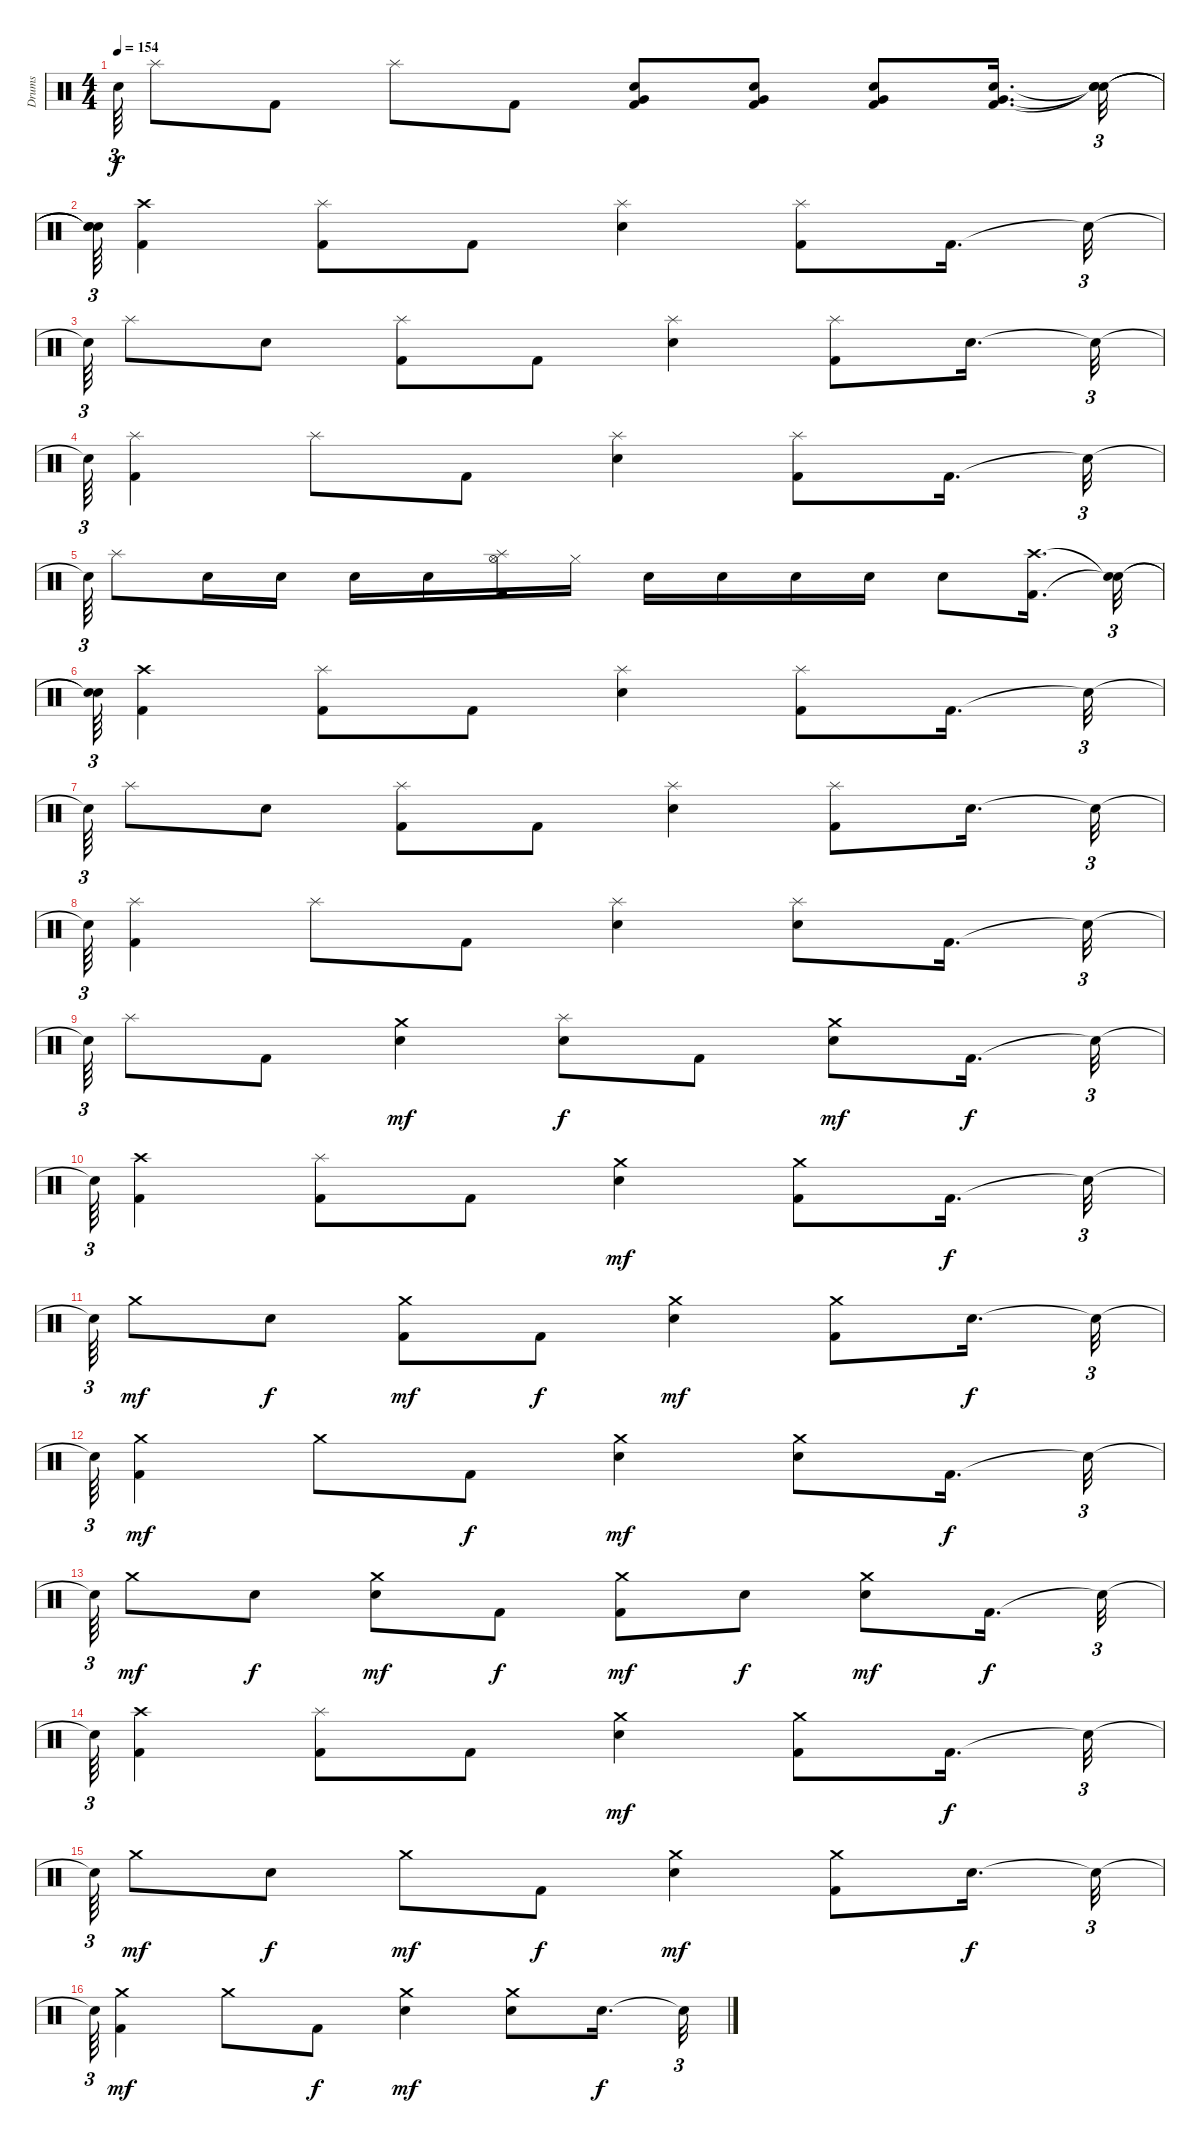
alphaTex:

\track ("Drums" "Drums") {instrument percussion}
\staff {score}
\articulation defaults
\ts (4 4)
\tempo 154
\clef neutral
\ks c "Snare (hit)"{t}.64{tu (3 2) dy f} "Splash (hit)".8 "Kick (hit) 2".8 "Splash (hit)".8 "Kick (hit) 2".8
("Electric Snare (hit)" "Kick (hit) 2" "Very Low Tom (hit)").8 ("Electric Snare (hit)" "Kick (hit) 2" "Very Low Tom (hit)").8 ("Electric Snare (hit)" "Kick (hit) 2" "Very Low Tom (hit)").8 ("Electric Snare (hit)" "Kick (hit) 2" "Very Low Tom (hit)").16{d} ("Snare (hit)"{t} "Snare (hit)"{t} "Snare (hit)"{t}).32{tu (3 2)} |
("Snare (hit)"{t} "Snare (hit)"{t} "Snare (hit)"{t}).64{tu (3 2)} ("Kick (hit) 2" "Crash high (hit)").4 ("Kick (hit) 2" "Splash (hit)").8 "Kick (hit) 2".8 ("Electric Snare (hit)" "Splash (hit)").4 ("Kick (hit) 2" "Splash (hit)").8 "Kick (hit) 2".16{d} "Snare (hit)"{t}.32{tu (3 2)} |
"Snare (hit)"{t}.64{tu (3 2)} "Splash (hit)".8 "Electric Snare (hit)".8 ("Kick (hit) 2" "Splash (hit)").8 "Kick (hit) 2".8 ("Electric Snare (hit)" "Splash (hit)").4 ("Kick (hit) 2" "Splash (hit)").8 "Electric Snare (hit)".16{d} "Snare (hit)"{t}.32{tu (3 2)} |
"Snare (hit)"{t}.64{tu (3 2)} ("Kick (hit) 2" "Splash (hit)").4 "Splash (hit)".8 "Kick (hit) 2".8 ("Electric Snare (hit)" "Splash (hit)").4 ("Kick (hit) 2" "Splash (hit)").8 "Kick (hit) 2".16{d} "Snare (hit)"{t}.32{tu (3 2)} |
"Snare (hit)"{t}.64{tu (3 2)} "Splash (hit)".8 "Electric Snare (hit)".16 "Electric Snare (hit)".16 "Electric Snare (hit)".16 "Electric Snare (hit)".16 ("Kick (hit) 2" "Hi-Hat (open)" "Splash (hit)").16 "Hi-Hat (closed)".16 "Electric Snare (hit)".16 "Electric Snare (hit)".16 "Electric Snare (hit)".16 "Electric Snare (hit)".16 "Electric Snare (hit)".8 ("Kick (hit) 2" "Crash high (hit)").16{d} ("Snare (hit)"{t} "Snare (hit)"{t}).32{tu (3 2)} |
("Snare (hit)"{t} "Snare (hit)"{t}).64{tu (3 2)} ("Crash high (hit)" "Kick (hit) 2").4 ("Kick (hit) 2" "Splash (hit)").8 "Kick (hit) 2".8 ("Electric Snare (hit)" "Splash (hit)").4 ("Kick (hit) 2" "Splash (hit)").8 "Kick (hit) 2".16{d} "Snare (hit)"{t}.32{tu (3 2)} |
"Snare (hit)"{t}.64{tu (3 2)} "Splash (hit)".8 "Electric Snare (hit)".8 ("Kick (hit) 2" "Splash (hit)").8 "Kick (hit) 2".8 ("Electric Snare (hit)" "Splash (hit)").4 ("Kick (hit) 2" "Splash (hit)").8 "Electric Snare (hit)".16{d} "Snare (hit)"{t}.32{tu (3 2)} |
"Snare (hit)"{t}.64{tu (3 2)} ("Kick (hit) 2" "Splash (hit)").4 "Splash (hit)".8 "Kick (hit) 2".8 ("Electric Snare (hit)" "Splash (hit)").4 ("Electric Snare (hit)" "Splash (hit)").8 "Kick (hit) 2".16{d} "Snare (hit)"{t}.32{tu (3 2)} |
"Snare (hit)"{t}.64{tu (3 2)} "Splash (hit)".8 "Kick (hit) 2".8 ("Electric Snare (hit)" "Crash medium (hit)").4{dy mf} ("Electric Snare (hit)" "Splash (hit)").8{dy f} "Kick (hit) 2".8 ("Electric Snare (hit)" "Crash medium (hit)").8{dy mf} "Kick (hit) 2".16{d dy f} "Snare (hit)"{t}.32{tu (3 2)} |
"Snare (hit)"{t}.64{tu (3 2)} ("Kick (hit) 2" "Crash high (hit)").4 ("Kick (hit) 2" "Splash (hit)").8 "Kick (hit) 2".8 ("Electric Snare (hit)" "Crash medium (hit)").4{dy mf} ("Kick (hit) 2" "Crash medium (hit)").8 "Kick (hit) 2".16{d dy f} "Snare (hit)"{t}.32{tu (3 2)} |
"Snare (hit)"{t}.64{tu (3 2)} "Crash medium (hit)".8{dy mf} "Electric Snare (hit)".8{dy f} ("Kick (hit) 2" "Crash medium (hit)").8{dy mf} "Kick (hit) 2".8{dy f} ("Electric Snare (hit)" "Crash medium (hit)").4{dy mf} ("Kick (hit) 2" "Crash medium (hit)").8 "Electric Snare (hit)".16{d dy f} "Snare (hit)"{t}.32{tu (3 2)} |
"Snare (hit)"{t}.64{tu (3 2)} ("Kick (hit) 2" "Crash medium (hit)").4{dy mf} "Crash medium (hit)".8 "Kick (hit) 2".8{dy f} ("Electric Snare (hit)" "Crash medium (hit)").4{dy mf} ("Electric Snare (hit)" "Crash medium (hit)").8 "Kick (hit) 2".16{d dy f} "Snare (hit)"{t}.32{tu (3 2)} |
"Snare (hit)"{t}.64{tu (3 2)} "Crash medium (hit)".8{dy mf} "Electric Snare (hit)".8{dy f} ("Electric Snare (hit)" "Crash medium (hit)").8{dy mf} "Kick (hit) 2".8{dy f} ("Kick (hit) 2" "Crash medium (hit)").8{dy mf} "Electric Snare (hit)".8{dy f} ("Electric Snare (hit)" "Crash medium (hit)").8{dy mf} "Kick (hit) 2".16{d dy f} "Snare (hit)"{t}.32{tu (3 2)} |
"Snare (hit)"{t}.64{tu (3 2)} ("Crash high (hit)" "Kick (hit) 2").4 ("Kick (hit) 2" "Splash (hit)").8 "Kick (hit) 2".8 ("Electric Snare (hit)" "Crash medium (hit)").4{dy mf} ("Kick (hit) 2" "Crash medium (hit)").8 "Kick (hit) 2".16{d dy f} "Snare (hit)"{t}.32{tu (3 2)} |
"Snare (hit)"{t}.64{tu (3 2)} "Crash medium (hit)".8{dy mf} "Electric Snare (hit)".8{dy f} "Crash medium (hit)".8{dy mf} "Kick (hit) 2".8{dy f} ("Electric Snare (hit)" "Crash medium (hit)").4{dy mf} ("Kick (hit) 2" "Crash medium (hit)").8 "Electric Snare (hit)".16{d dy f} "Snare (hit)"{t}.32{tu (3 2)} |
"Snare (hit)"{t}.64{tu (3 2)} ("Kick (hit) 2" "Crash medium (hit)").4{dy mf} "Crash medium (hit)".8 "Kick (hit) 2".8{dy f} ("Electric Snare (hit)" "Crash medium (hit)").4{dy mf} ("Electric Snare (hit)" "Crash medium (hit)").8 "Electric Snare (hit)".16{d dy f} "Snare (hit)"{t}.32{tu (3 2)}
